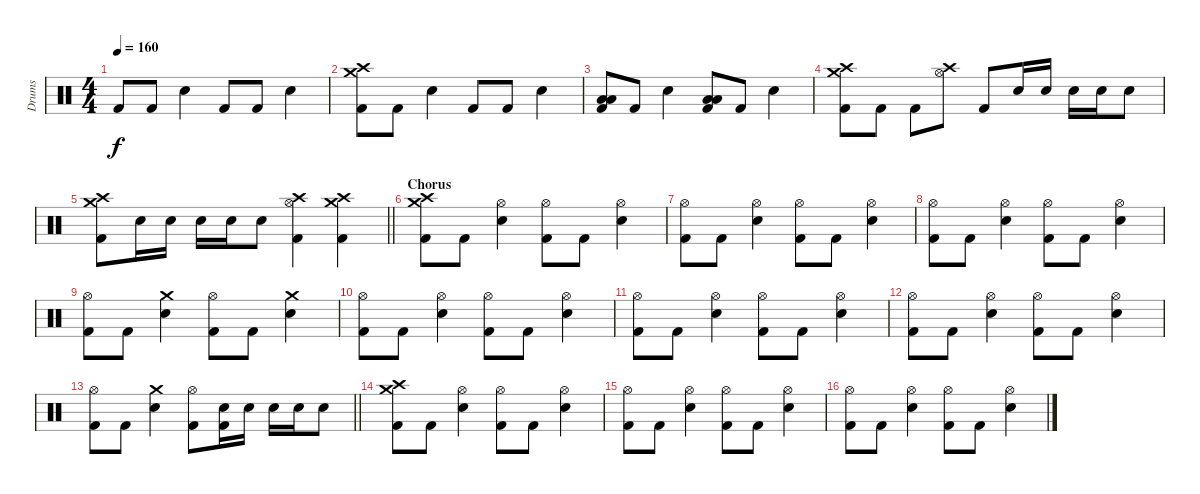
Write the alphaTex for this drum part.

\track ("Drums" "Drums") {instrument percussion}
\staff {score}
\articulation defaults
\ts (4 4)
\tempo 160
\clef neutral
\ks c "Kick (hit) 2".8{dy f} "Kick (hit) 2".8 "Snare (hit) 2".4 "Kick (hit) 2".8 "Kick (hit) 2".8 "Snare (hit) 2".4
|
("Crash medium (hit)" "Crash high (hit)" "Kick (hit) 2").8 "Kick (hit) 2".8 "Snare (hit) 2".4 "Kick (hit) 2".8 "Kick (hit) 2".8 "Snare (hit) 2".4 |
("Low Floor Tom (hit)" "Low Tom (hit)" "Kick (hit) 2").8 "Kick (hit) 2".8 "Snare (hit) 2".4 ("Low Floor Tom (hit)" "Low Tom (hit)" "Kick (hit) 2").8 "Kick (hit) 2".8 "Snare (hit) 2".4 |
("Crash medium (hit)" "Crash high (hit)" "Kick (hit) 2").8 "Kick (hit) 2".8 "Kick (hit) 2".8 ("Hi-Hat (open)" "Crash high (hit)").8 "Kick (hit) 2".8 "Snare (hit) 2".16 "Snare (hit) 2".16 "Snare (hit) 2".16 "Snare (hit) 2".16 "Snare (hit) 2".8 |
\barLineRight lightlight
("Crash medium (hit)" "Crash high (hit)" "Kick (hit) 2").8 "Electric Snare (hit)".16 "Electric Snare (hit)".16 "Electric Snare (hit)".16 "Electric Snare (hit)".16 "Electric Snare (hit)".8 ("Hi-Hat (open)" "Crash high (hit)" "Kick (hit) 2").4 ("Crash medium (hit)" "Crash high (hit)" "Kick (hit) 2").4 |
\section ("" "Chorus")
("Crash medium (hit)" "Crash high (hit)" "Kick (hit) 2").8 "Kick (hit) 2".8 ("Hi-Hat (open)" "Snare (hit) 2").4 ("Hi-Hat (open)" "Kick (hit) 2").8 "Kick (hit) 2".8 ("Hi-Hat (open)" "Snare (hit) 2").4 |
("Hi-Hat (open)" "Kick (hit) 2").8 "Kick (hit) 2".8 ("Hi-Hat (open)" "Snare (hit) 2").4 ("Hi-Hat (open)" "Kick (hit) 2").8 "Kick (hit) 2".8 ("Hi-Hat (open)" "Snare (hit) 2").4 |
("Hi-Hat (open)" "Kick (hit) 2").8 "Kick (hit) 2".8 ("Hi-Hat (open)" "Snare (hit) 2").4 ("Hi-Hat (open)" "Kick (hit) 2").8 "Kick (hit) 2".8 ("Hi-Hat (open)" "Snare (hit) 2").4 |
("Hi-Hat (open)" "Kick (hit) 2").8 "Kick (hit) 2".8 ("Crash medium (hit)" "Snare (hit) 2").4 ("Hi-Hat (open)" "Kick (hit) 2").8 "Kick (hit) 2".8 ("Crash medium (hit)" "Snare (hit) 2").4 |
("Hi-Hat (open)" "Kick (hit) 2").8 "Kick (hit) 2".8 ("Hi-Hat (open)" "Snare (hit) 2").4 ("Hi-Hat (open)" "Kick (hit) 2").8 "Kick (hit) 2".8 ("Hi-Hat (open)" "Snare (hit) 2").4 |
("Hi-Hat (open)" "Kick (hit) 2").8 "Kick (hit) 2".8 ("Hi-Hat (open)" "Snare (hit) 2").4 ("Hi-Hat (open)" "Kick (hit) 2").8 "Kick (hit) 2".8 ("Hi-Hat (open)" "Snare (hit) 2").4 |
("Hi-Hat (open)" "Kick (hit) 2").8 "Kick (hit) 2".8 ("Hi-Hat (open)" "Snare (hit) 2").4 ("Hi-Hat (open)" "Kick (hit) 2").8 "Kick (hit) 2".8 ("Hi-Hat (open)" "Snare (hit) 2").4 |
\barLineRight lightlight
("Hi-Hat (open)" "Kick (hit) 2").8 "Kick (hit) 2".8 ("Crash medium (hit)" "Snare (hit) 2").4 ("Hi-Hat (open)" "Kick (hit) 2").8 ("Snare (hit) 2" "Kick (hit) 2").16 "Snare (hit) 2".16 "Snare (hit) 2".16 "Snare (hit) 2".16 "Snare (hit) 2".8 |
("Crash medium (hit)" "Crash high (hit)" "Kick (hit) 2").8 "Kick (hit) 2".8 ("Hi-Hat (open)" "Snare (hit) 2").4 ("Hi-Hat (open)" "Kick (hit) 2").8 "Kick (hit) 2".8 ("Hi-Hat (open)" "Snare (hit) 2").4 |
("Hi-Hat (open)" "Kick (hit) 2").8 "Kick (hit) 2".8 ("Hi-Hat (open)" "Snare (hit) 2").4 ("Hi-Hat (open)" "Kick (hit) 2").8 "Kick (hit) 2".8 ("Hi-Hat (open)" "Snare (hit) 2").4 |
("Hi-Hat (open)" "Kick (hit) 2").8 "Kick (hit) 2".8 ("Hi-Hat (open)" "Snare (hit) 2").4 ("Hi-Hat (open)" "Kick (hit) 2").8 "Kick (hit) 2".8 ("Hi-Hat (open)" "Snare (hit) 2").4
